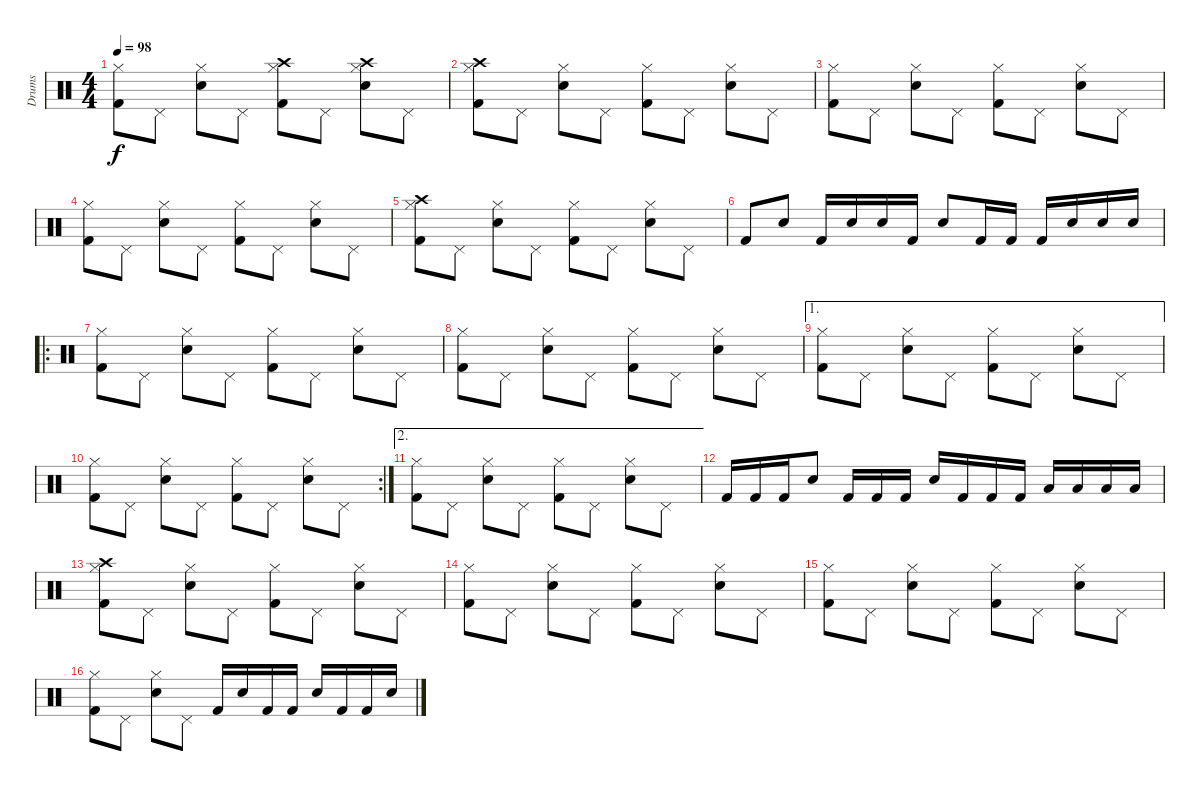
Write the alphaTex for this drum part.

\track ("Drums" "Drums") {instrument percussion}
\staff {score}
\articulation defaults
\ts (4 4)
\tempo 98
\clef neutral
\ks c
("Hi-Hat (closed)" "Kick (hit) 2").8{dy f} "Pedal Hi-Hat (hit)".8 ("Hi-Hat (closed)" "Snare (hit) 2").8 "Pedal Hi-Hat (hit)".8 ("Hi-Hat (closed)" "Kick (hit) 2" "Crash high (hit)").8 "Pedal Hi-Hat (hit)".8 ("Hi-Hat (closed)" "Snare (hit) 2" "Crash high (hit)").8 "Pedal Hi-Hat (hit)".8 |
("Hi-Hat (closed)" "Kick (hit) 2" "Crash high (hit)").8 "Pedal Hi-Hat (hit)".8 ("Hi-Hat (closed)" "Snare (hit) 2").8 "Pedal Hi-Hat (hit)".8 ("Hi-Hat (closed)" "Kick (hit) 2").8 "Pedal Hi-Hat (hit)".8 ("Hi-Hat (closed)" "Snare (hit) 2").8 "Pedal Hi-Hat (hit)".8 |
("Hi-Hat (closed)" "Kick (hit) 2").8 "Pedal Hi-Hat (hit)".8 ("Hi-Hat (closed)" "Snare (hit) 2").8 "Pedal Hi-Hat (hit)".8 ("Hi-Hat (closed)" "Kick (hit) 2").8 "Pedal Hi-Hat (hit)".8 ("Hi-Hat (closed)" "Snare (hit) 2").8 "Pedal Hi-Hat (hit)".8 |
("Hi-Hat (closed)" "Kick (hit) 2").8 "Pedal Hi-Hat (hit)".8 ("Hi-Hat (closed)" "Snare (hit) 2").8 "Pedal Hi-Hat (hit)".8 ("Hi-Hat (closed)" "Kick (hit) 2").8 "Pedal Hi-Hat (hit)".8 ("Hi-Hat (closed)" "Snare (hit) 2").8 "Pedal Hi-Hat (hit)".8 |
("Hi-Hat (closed)" "Kick (hit) 2" "Crash high (hit)").8 "Pedal Hi-Hat (hit)".8 ("Hi-Hat (closed)" "Snare (hit) 2").8 "Pedal Hi-Hat (hit)".8 ("Hi-Hat (closed)" "Kick (hit) 2").8 "Pedal Hi-Hat (hit)".8 ("Hi-Hat (closed)" "Snare (hit) 2").8 "Pedal Hi-Hat (hit)".8 |
"Kick (hit) 2".8 "Snare (hit) 2".8 "Kick (hit) 2".16 "Snare (hit) 2".16 "Snare (hit) 2".16 "Kick (hit) 2".16 "Snare (hit) 2".8 "Kick (hit) 2".16 "Kick (hit) 2".16 "Kick (hit) 2".16 "Snare (hit) 2".16 "Snare (hit) 2".16 "Snare (hit) 2".16 |
\ro
("Hi-Hat (closed)" "Kick (hit) 2").8 "Pedal Hi-Hat (hit)".8 ("Hi-Hat (closed)" "Snare (hit) 2").8 "Pedal Hi-Hat (hit)".8 ("Hi-Hat (closed)" "Kick (hit) 2").8 "Pedal Hi-Hat (hit)".8 ("Hi-Hat (closed)" "Snare (hit) 2").8 "Pedal Hi-Hat (hit)".8 |
("Hi-Hat (closed)" "Kick (hit) 2").8 "Pedal Hi-Hat (hit)".8 ("Hi-Hat (closed)" "Snare (hit) 2").8 "Pedal Hi-Hat (hit)".8 ("Hi-Hat (closed)" "Kick (hit) 2").8 "Pedal Hi-Hat (hit)".8 ("Hi-Hat (closed)" "Snare (hit) 2").8 "Pedal Hi-Hat (hit)".8 |
\ae 1
("Hi-Hat (closed)" "Kick (hit) 2").8 "Pedal Hi-Hat (hit)".8 ("Hi-Hat (closed)" "Snare (hit) 2").8 "Pedal Hi-Hat (hit)".8 ("Hi-Hat (closed)" "Kick (hit) 2").8 "Pedal Hi-Hat (hit)".8 ("Hi-Hat (closed)" "Snare (hit) 2").8 "Pedal Hi-Hat (hit)".8 |
\rc 2
("Hi-Hat (closed)" "Kick (hit) 2").8 "Pedal Hi-Hat (hit)".8 ("Hi-Hat (closed)" "Snare (hit) 2").8 "Pedal Hi-Hat (hit)".8 ("Hi-Hat (closed)" "Kick (hit) 2").8 "Pedal Hi-Hat (hit)".8 ("Hi-Hat (closed)" "Snare (hit) 2").8 "Pedal Hi-Hat (hit)".8 |
\ae 2
("Hi-Hat (closed)" "Kick (hit) 2").8 "Pedal Hi-Hat (hit)".8 ("Hi-Hat (closed)" "Snare (hit) 2").8 "Pedal Hi-Hat (hit)".8 ("Hi-Hat (closed)" "Kick (hit) 2").8 "Pedal Hi-Hat (hit)".8 ("Hi-Hat (closed)" "Snare (hit) 2").8 "Pedal Hi-Hat (hit)".8 |
"Kick (hit) 2".16 "Kick (hit) 2".16 "Kick (hit) 2".16 "Snare (hit) 2".8 "Kick (hit) 2".16 "Kick (hit) 2".16 "Kick (hit) 2".16 "Snare (hit) 2".16 "Kick (hit) 2".16 "Kick (hit) 2".16 "Kick (hit) 2".16 "Low Tom (hit)".16 "Low Tom (hit)".16 "Low Tom (hit)".16 "Low Tom (hit)".16 |
("Hi-Hat (closed)" "Kick (hit) 2" "Crash high (hit)").8 "Pedal Hi-Hat (hit)".8 ("Hi-Hat (closed)" "Snare (hit) 2").8 "Pedal Hi-Hat (hit)".8 ("Hi-Hat (closed)" "Kick (hit) 2").8 "Pedal Hi-Hat (hit)".8 ("Hi-Hat (closed)" "Snare (hit) 2").8 "Pedal Hi-Hat (hit)".8 |
("Hi-Hat (closed)" "Kick (hit) 2").8 "Pedal Hi-Hat (hit)".8 ("Hi-Hat (closed)" "Snare (hit) 2").8 "Pedal Hi-Hat (hit)".8 ("Hi-Hat (closed)" "Kick (hit) 2").8 "Pedal Hi-Hat (hit)".8 ("Hi-Hat (closed)" "Snare (hit) 2").8 "Pedal Hi-Hat (hit)".8 |
("Hi-Hat (closed)" "Kick (hit) 2").8 "Pedal Hi-Hat (hit)".8 ("Hi-Hat (closed)" "Snare (hit) 2").8 "Pedal Hi-Hat (hit)".8 ("Hi-Hat (closed)" "Kick (hit) 2").8 "Pedal Hi-Hat (hit)".8 ("Hi-Hat (closed)" "Snare (hit) 2").8 "Pedal Hi-Hat (hit)".8 |
("Hi-Hat (closed)" "Kick (hit) 2").8 "Pedal Hi-Hat (hit)".8 ("Hi-Hat (closed)" "Snare (hit) 2").8 "Pedal Hi-Hat (hit)".8 "Kick (hit) 2".16 "Snare (hit) 2".16 "Kick (hit) 2".16 "Kick (hit) 2".16 "Snare (hit) 2".16 "Kick (hit) 2".16 "Kick (hit) 2".16 "Snare (hit) 2".16
